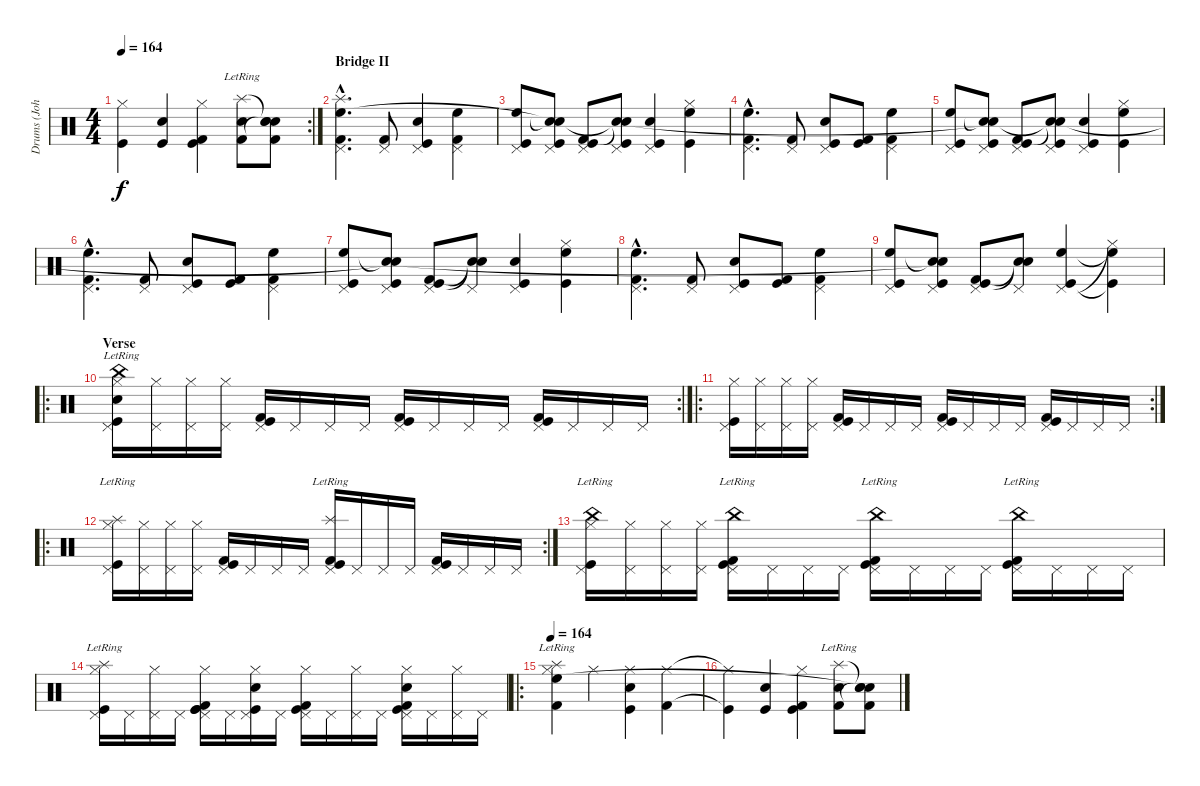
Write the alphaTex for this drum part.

\track ("Drums (John)" "Drums (Joh") {instrument percussion}
\staff {score}
\articulation defaults
\rc 2
\ts (4 4)
\tempo 164
\clef neutral
\ks c
("Hi-Hat (closed)"{t} "Kick (hit)"{t}).4{dy f} ("Electric Snare (hit)" "Kick (hit)").4 ("Hi-Hat (closed)" "Kick (hit) 2" "Kick (hit)").4 ("Splash (hit)"{lr} "Electric Snare (hit)" "Kick (hit) 2").8 ("Snare (hit)"{t} "Kick (hit) 2" "Snare (hit)"{t} "Snare (hit)"{t}).8 |
\section ("" "Bridge II")
("Pedal Hi-Hat (hit)"{hac} "Splash (hit)"{hac} "Kick (hit) 2"{hac} "High Floor Tom (hit)"{hac}).4{d} ("Pedal Hi-Hat (hit)" "Kick (hit) 2").8 ("Pedal Hi-Hat (hit)" "Electric Snare (hit)" "Kick (hit)").4 ("Pedal Hi-Hat (hit)" "Kick (hit) 2" "High Floor Tom (hit)").4 |
("Pedal Hi-Hat (hit)" "Kick (hit)" "High Floor Tom (hit)").8 ("Pedal Hi-Hat (hit)" "Kick (hit)" "Snare (hit)"{t} "Snare (hit)"{t}).8 ("Pedal Hi-Hat (hit)" "Kick (hit)" "Kick (hit) 2").8 ("Pedal Hi-Hat (hit)" "Kick (hit)" "Snare (hit)"{t} "Snare (hit)"{t}).8 ("Pedal Hi-Hat (hit)" "Electric Snare (hit)" "Kick (hit)").4 ("Hi-Hat (closed)" "Kick (hit)" "High Floor Tom (hit)").4 |
("Pedal Hi-Hat (hit)"{hac} "Kick (hit) 2"{hac} "High Floor Tom (hit)"{hac}).4{d} ("Pedal Hi-Hat (hit)" "Kick (hit) 2").8 ("Pedal Hi-Hat (hit)" "Electric Snare (hit)" "Kick (hit)").8 ("Kick (hit)" "Kick (hit) 2").8 ("Pedal Hi-Hat (hit)" "Kick (hit) 2" "High Floor Tom (hit)").4 |
("Pedal Hi-Hat (hit)" "Kick (hit)" "High Floor Tom (hit)").8 ("Pedal Hi-Hat (hit)" "Kick (hit)" "Snare (hit)"{t} "Snare (hit)"{t}).8 ("Pedal Hi-Hat (hit)" "Kick (hit)" "Kick (hit) 2").8 ("Pedal Hi-Hat (hit)" "Kick (hit)" "Snare (hit)"{t} "Snare (hit)"{t}).8 ("Pedal Hi-Hat (hit)" "Electric Snare (hit)" "Kick (hit)").4 ("Hi-Hat (closed)" "Kick (hit)" "High Floor Tom (hit)").4 |
("Pedal Hi-Hat (hit)"{hac} "Kick (hit) 2"{hac} "High Floor Tom (hit)"{hac}).4{d} ("Pedal Hi-Hat (hit)" "Kick (hit) 2").8 ("Pedal Hi-Hat (hit)" "Electric Snare (hit)" "Kick (hit)").8 ("Kick (hit)" "Kick (hit) 2").8 ("Pedal Hi-Hat (hit)" "Kick (hit) 2" "High Floor Tom (hit)").4 |
("Pedal Hi-Hat (hit)" "Kick (hit)" "High Floor Tom (hit)").8 ("Pedal Hi-Hat (hit)" "Kick (hit)" "Snare (hit)"{t} "Snare (hit)"{t}).8 ("Pedal Hi-Hat (hit)" "Kick (hit)" "Kick (hit) 2").8 ("Pedal Hi-Hat (hit)" "Snare (hit)"{t} "Snare (hit)"{t}).8 ("Pedal Hi-Hat (hit)" "Electric Snare (hit)" "Kick (hit)").4 ("Hi-Hat (closed)" "Kick (hit)" "High Floor Tom (hit)").4 |
("Pedal Hi-Hat (hit)"{hac} "Kick (hit) 2"{hac} "High Floor Tom (hit)"{hac}).4{d} ("Pedal Hi-Hat (hit)" "Kick (hit) 2").8 ("Pedal Hi-Hat (hit)" "Electric Snare (hit)" "Kick (hit)").8 ("Kick (hit)" "Kick (hit) 2").8 ("Pedal Hi-Hat (hit)" "Kick (hit) 2" "High Floor Tom (hit)").4 |
("Pedal Hi-Hat (hit)" "Kick (hit)" "High Floor Tom (hit)").8 ("Pedal Hi-Hat (hit)" "Kick (hit)" "Snare (hit)"{t} "Snare (hit)"{t}).8 ("Pedal Hi-Hat (hit)" "Kick (hit)" "Kick (hit) 2").8 ("Pedal Hi-Hat (hit)" "Snare (hit)"{t} "Snare (hit)"{t}).8 ("Pedal Hi-Hat (hit)" "Kick (hit)" "High Floor Tom (hit)").4 ("Hi-Hat (closed)"{t} "Kick (hit)"{t} "High Floor Tom (hit)"{t}).4 |
\ro
\rc 2
\section ("" "Verse")
("China (hit)"{lr} "Electric Snare (hit)" "Pedal Hi-Hat (hit)" "Hi-Hat (closed)" "Kick (hit)").16 ("Pedal Hi-Hat (hit)" "Hi-Hat (closed)").16 ("Pedal Hi-Hat (hit)" "Hi-Hat (closed)").16 ("Pedal Hi-Hat (hit)" "Hi-Hat (closed)").16 ("Pedal Hi-Hat (hit)" "Kick (hit) 2" "Kick (hit)").16 "Pedal Hi-Hat (hit)".16 "Pedal Hi-Hat (hit)".16 "Pedal Hi-Hat (hit)".16 ("Pedal Hi-Hat (hit)" "Kick (hit) 2" "Kick (hit)").16 "Pedal Hi-Hat (hit)".16 "Pedal Hi-Hat (hit)".16 "Pedal Hi-Hat (hit)".16 ("Pedal Hi-Hat (hit)" "Kick (hit) 2" "Kick (hit)").16 "Pedal Hi-Hat (hit)".16 "Pedal Hi-Hat (hit)".16 "Pedal Hi-Hat (hit)".16 |
\ro
\rc 2
("Pedal Hi-Hat (hit)" "Hi-Hat (closed)" "Kick (hit)").16 ("Pedal Hi-Hat (hit)" "Hi-Hat (closed)").16 ("Pedal Hi-Hat (hit)" "Hi-Hat (closed)").16 ("Pedal Hi-Hat (hit)" "Hi-Hat (closed)").16 ("Pedal Hi-Hat (hit)" "Kick (hit) 2" "Kick (hit)").16 "Pedal Hi-Hat (hit)".16 "Pedal Hi-Hat (hit)".16 "Pedal Hi-Hat (hit)".16 ("Pedal Hi-Hat (hit)" "Kick (hit) 2" "Kick (hit)").16 "Pedal Hi-Hat (hit)".16 "Pedal Hi-Hat (hit)".16 "Pedal Hi-Hat (hit)".16 ("Pedal Hi-Hat (hit)" "Kick (hit) 2" "Kick (hit)").16 "Pedal Hi-Hat (hit)".16 "Pedal Hi-Hat (hit)".16 "Pedal Hi-Hat (hit)".16 |
\ro
\rc 2
("Splash (hit)"{lr} "Pedal Hi-Hat (hit)" "Hi-Hat (closed)" "Kick (hit)").16 ("Pedal Hi-Hat (hit)" "Hi-Hat (closed)").16 ("Pedal Hi-Hat (hit)" "Hi-Hat (closed)").16 ("Pedal Hi-Hat (hit)" "Hi-Hat (closed)").16 ("Pedal Hi-Hat (hit)" "Kick (hit) 2" "Kick (hit)").16 "Pedal Hi-Hat (hit)".16 "Pedal Hi-Hat (hit)".16 "Pedal Hi-Hat (hit)".16 ("Splash (hit)"{lr} "Pedal Hi-Hat (hit)" "Kick (hit) 2" "Kick (hit)").16 "Pedal Hi-Hat (hit)".16 "Pedal Hi-Hat (hit)".16 "Pedal Hi-Hat (hit)".16 ("Pedal Hi-Hat (hit)" "Kick (hit) 2" "Kick (hit)").16 "Pedal Hi-Hat (hit)".16 "Pedal Hi-Hat (hit)".16 "Pedal Hi-Hat (hit)".16 |
("China (hit)"{lr} "Pedal Hi-Hat (hit)" "Hi-Hat (closed)" "Kick (hit)").16 ("Pedal Hi-Hat (hit)" "Hi-Hat (closed)").16 ("Pedal Hi-Hat (hit)" "Hi-Hat (closed)").16 ("Pedal Hi-Hat (hit)" "Hi-Hat (closed)").16 ("China (hit)"{lr} "Pedal Hi-Hat (hit)" "Kick (hit) 2" "Kick (hit)").16 "Pedal Hi-Hat (hit)".16 "Pedal Hi-Hat (hit)".16 "Pedal Hi-Hat (hit)".16 ("China (hit)"{lr} "Pedal Hi-Hat (hit)" "Kick (hit) 2" "Kick (hit)").16 "Pedal Hi-Hat (hit)".16 "Pedal Hi-Hat (hit)".16 "Pedal Hi-Hat (hit)".16 ("China (hit)"{lr} "Pedal Hi-Hat (hit)" "Kick (hit) 2" "Kick (hit)").16 "Pedal Hi-Hat (hit)".16 "Pedal Hi-Hat (hit)".16 "Pedal Hi-Hat (hit)".16 |
("Splash (hit)"{lr} "Hi-Hat (closed)" "Pedal Hi-Hat (hit)" "Kick (hit)").16 "Pedal Hi-Hat (hit)".16 ("Hi-Hat (closed)" "Pedal Hi-Hat (hit)").16 "Pedal Hi-Hat (hit)".16 ("Kick (hit)" "Hi-Hat (closed)" "Pedal Hi-Hat (hit)" "Kick (hit) 2" "Kick (hit)").16 "Pedal Hi-Hat (hit)".16 ("Electric Snare (hit)" "Hi-Hat (closed)" "Pedal Hi-Hat (hit)" "Kick (hit)").16 "Pedal Hi-Hat (hit)".16 ("Hi-Hat (closed)" "Pedal Hi-Hat (hit)" "Kick (hit) 2" "Kick (hit)").16 "Pedal Hi-Hat (hit)".16 ("Hi-Hat (closed)" "Pedal Hi-Hat (hit)").16 "Pedal Hi-Hat (hit)".16 ("Electric Snare (hit)" "Hi-Hat (closed)" "Pedal Hi-Hat (hit)" "Kick (hit) 2" "Kick (hit)").16 "Pedal Hi-Hat (hit)".16 ("Hi-Hat (closed)" "Pedal Hi-Hat (hit)").16 "Pedal Hi-Hat (hit)".16 |
\ro
\tempo 164
("Splash (hit)"{lr} "Hi-Hat (closed)" "Kick (hit) 2" "High Floor Tom (hit)").4 "Hi-Hat (closed)".4 ("Hi-Hat (closed)" "Electric Snare (hit)" "Kick (hit)").4 ("Hi-Hat (closed)" "Kick (hit) 2").4 |
("Hi-Hat (closed)"{t} "Kick (hit)"{t}).4 ("Electric Snare (hit)" "Kick (hit)").4 ("Hi-Hat (closed)" "Kick (hit) 2" "Kick (hit)").4 ("Splash (hit)"{lr} "Electric Snare (hit)" "Kick (hit) 2").8 ("Snare (hit)"{t} "Kick (hit) 2" "Snare (hit)"{t} "Snare (hit)"{t}).8
